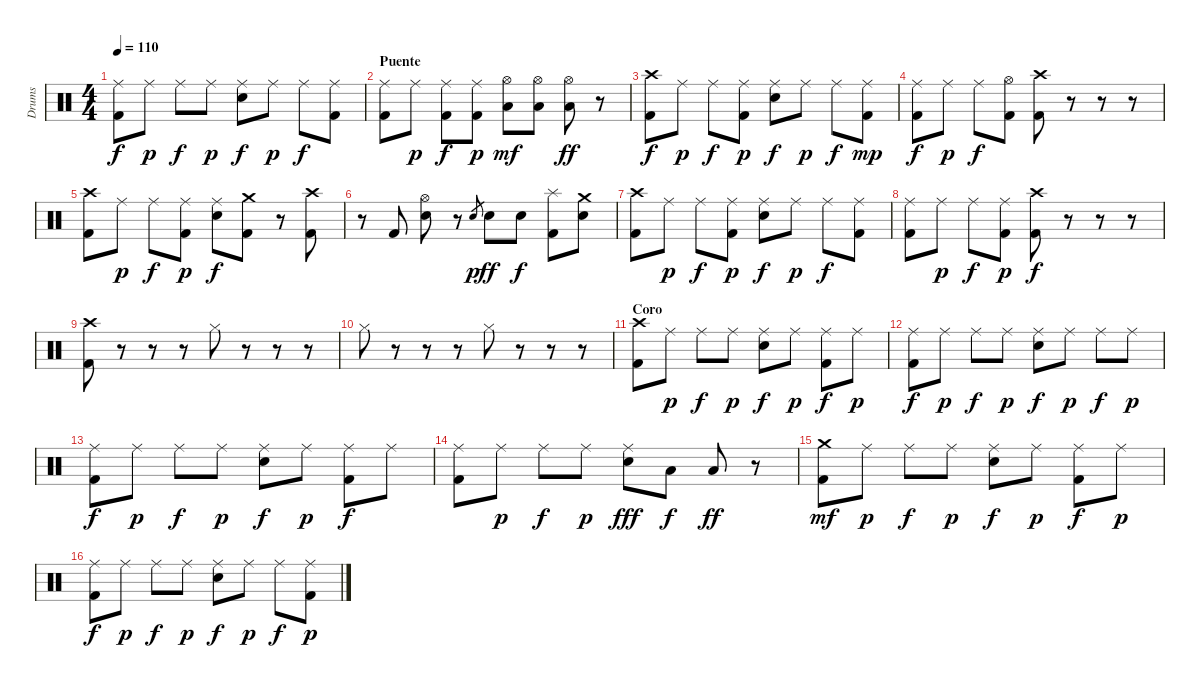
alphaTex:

\track ("Drums" "Drums") {instrument percussion}
\staff {score}
\articulation defaults
\ts (4 4)
\tempo 110
\clef neutral
\ks c
("Ride (middle)" "Kick (hit) 2").8{dy f} "Ride (middle)".8{dy p} "Ride (middle)".8{dy f} "Ride (middle)".8{dy p} ("Ride (middle)" "Snare (hit) 2").8{dy f} "Ride (middle)".8{dy p} "Ride (middle)".8{dy f} ("Ride (middle)" "Kick (hit) 2").8 |
\section ("" "Puente")
("Ride (middle)" "Kick (hit) 2").8 "Ride (middle)".8{dy p} ("Ride (middle)" "Kick (hit) 2").8{dy f} ("Ride (middle)" "Kick (hit) 2").8{dy p} ("Hi-Hat (open)" "Low Floor Tom (hit)").8{dy mf} ("Hi-Hat (open)" "Low Floor Tom (hit)").8 ("Hi-Hat (open)" "Low Floor Tom (hit)").8{dy ff} r.8 |
("Crash high (hit)" "Kick (hit) 2").8{dy f} "Ride (middle)".8{dy p} "Ride (middle)".8{dy f} ("Ride (middle)" "Kick (hit) 2").8{dy p} ("Ride (middle)" "Snare (hit) 2").8{dy f} "Ride (middle)".8{dy p} "Ride (middle)".8{dy f} ("Ride (middle)" "Kick (hit) 2").8{dy mp} |
("Ride (middle)" "Kick (hit) 2").8{dy f} "Ride (middle)".8{dy p} "Ride (middle)".8{dy f} ("Hi-Hat (open)" "Kick (hit) 2").8 ("Crash high (hit)" "Kick (hit) 2").8 r.8 r.8 r.8 |
("Crash high (hit)" "Kick (hit) 2").8 "Ride (middle)".8{dy p} "Ride (middle)".8{dy f} ("Ride (middle)" "Kick (hit) 2").8{dy p} ("Ride (middle)" "Snare (hit) 2").8{dy f} ("Crash medium (hit)" "Kick (hit) 2").8 r.8 ("Crash high (hit)" "Kick (hit) 2").8 |
r.8 "Kick (hit) 2".8 ("Hi-Hat (open)" "Snare (hit) 2").8 r.8 "Snare (hit) 2".8{gr dy p} "Snare (hit) 2".8{dy ff} "Snare (hit) 2".8{dy f} ("Splash (hit)" "Kick (hit) 2").8 ("Crash medium (hit)" "Snare (hit) 2").8 |
("Crash high (hit)" "Kick (hit) 2").8 "Ride (middle)".8{dy p} "Ride (middle)".8{dy f} ("Ride (middle)" "Kick (hit) 2").8{dy p} ("Ride (middle)" "Snare (hit) 2").8{dy f} "Ride (middle)".8{dy p} "Ride (middle)".8{dy f} ("Ride (middle)" "Kick (hit) 2").8 |
("Ride (middle)" "Kick (hit) 2").8 "Ride (middle)".8{dy p} "Ride (middle)".8{dy f} ("Ride (middle)" "Kick (hit) 2").8{dy p} ("Crash high (hit)" "Kick (hit) 2").8{dy f} r.8 r.8 r.8 |
("Crash high (hit)" "Kick (hit) 2").8 r.8 r.8 r.8 "Hi-Hat (closed)".8 r.8 r.8 r.8 |
"Hi-Hat (closed)".8 r.8 r.8 r.8 "Hi-Hat (closed)".8 r.8 r.8 r.8 |
\section ("" "Coro")
("Crash high (hit)" "Kick (hit) 2").8 "Ride (middle)".8{dy p} "Ride (middle)".8{dy f} "Ride (middle)".8{dy p} ("Ride (middle)" "Snare (hit) 2").8{dy f} "Ride (middle)".8{dy p} ("Ride (middle)" "Kick (hit) 2").8{dy f} "Ride (middle)".8{dy p} |
("Ride (middle)" "Kick (hit) 2").8{dy f} "Ride (middle)".8{dy p} "Ride (middle)".8{dy f} "Ride (middle)".8{dy p} ("Ride (middle)" "Snare (hit) 2").8{dy f} "Ride (middle)".8{dy p} "Ride (middle)".8{dy f} "Ride (middle)".8{dy p} |
("Ride (middle)" "Kick (hit) 2").8{dy f} "Ride (middle)".8{dy p} "Ride (middle)".8{dy f} "Ride (middle)".8{dy p} ("Ride (middle)" "Snare (hit) 2").8{dy f} "Ride (middle)".8{dy p} ("Ride (middle)" "Kick (hit) 2").8{dy f} "Ride (middle)".8 |
("Ride (middle)" "Kick (hit) 2").8 "Ride (middle)".8{dy p} "Ride (middle)".8{dy f} "Ride (middle)".8{dy p} ("Ride (middle)" "Snare (hit) 2").8{dy fff} "Low Tom (hit)".8{dy f} "Low Tom (hit)".8{dy ff} r.8 |
("Crash medium (hit)" "Kick (hit) 2").8{dy mf} "Ride (middle)".8{dy p} "Ride (middle)".8{dy f} "Ride (middle)".8{dy p} ("Ride (middle)" "Snare (hit) 2").8{dy f} "Ride (middle)".8{dy p} ("Ride (middle)" "Kick (hit) 2").8{dy f} "Ride (middle)".8{dy p} |
("Ride (middle)" "Kick (hit) 2").8{dy f} "Ride (middle)".8{dy p} "Ride (middle)".8{dy f} "Ride (middle)".8{dy p} ("Ride (middle)" "Snare (hit) 2").8{dy f} "Ride (middle)".8{dy p} "Ride (middle)".8{dy f} ("Ride (middle)" "Kick (hit) 2").8{dy p}
